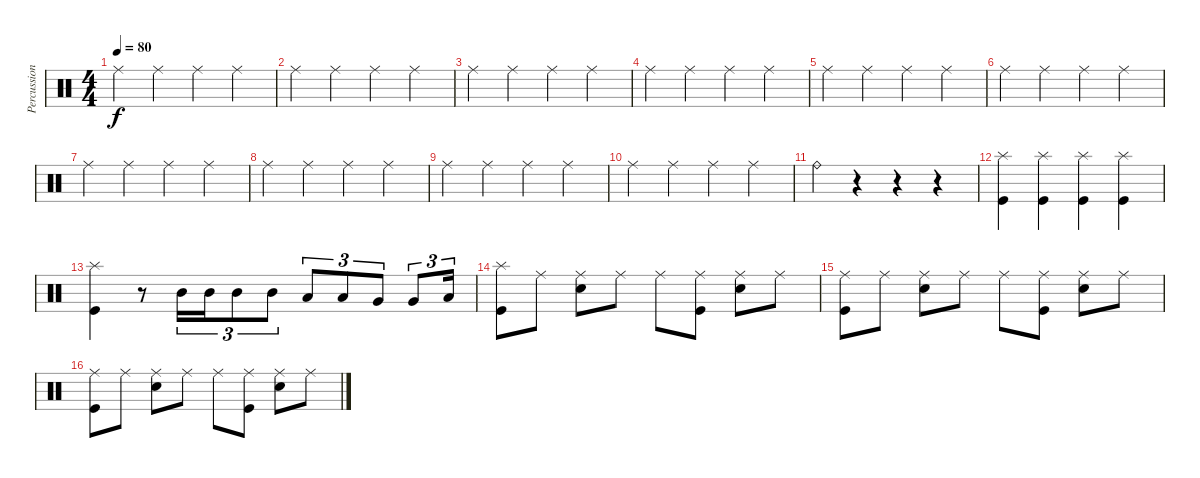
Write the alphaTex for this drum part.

\track ("Percussions" "Percussion") {instrument percussion}
\staff {score}
\articulation defaults
\ts (4 4)
\tempo 80
\clef neutral
\ks c "Ride (middle)".4{dy f} "Ride (middle)".4 "Ride (middle)".4 "Ride (middle)".4
|
"Ride (middle)".4 "Ride (middle)".4 "Ride (middle)".4 "Ride (middle)".4 |
"Ride (middle)".4 "Ride (middle)".4 "Ride (middle)".4 "Ride (middle)".4 |
"Ride (middle)".4 "Ride (middle)".4 "Ride (middle)".4 "Ride (middle)".4 |
"Ride (middle)".4 "Ride (middle)".4 "Ride (middle)".4 "Ride (middle)".4 |
"Ride (middle)".4 "Ride (middle)".4 "Ride (middle)".4 "Ride (middle)".4 |
"Ride (middle)".4 "Ride (middle)".4 "Ride (middle)".4 "Ride (middle)".4 |
"Ride (middle)".4 "Ride (middle)".4 "Ride (middle)".4 "Ride (middle)".4 |
"Ride (middle)".4 "Ride (middle)".4 "Ride (middle)".4 "Ride (middle)".4 |
"Ride (middle)".4 "Ride (middle)".4 "Ride (middle)".4 "Ride (middle)".4 |
"Ride (bell)".4 r.4 r.4 r.4 |
("Splash (hit)" "Kick (hit)").4 ("Splash (hit)" "Kick (hit)").4 ("Splash (hit)" "Kick (hit)").4 ("Splash (hit)" "Kick (hit)").4 |
("Splash (hit)" "Kick (hit)").4 r.8 "Mid Tom (hit)".16{tu (3 2)} "Mid Tom (hit)".16{tu (3 2)} "Mid Tom (hit)".8{tu (3 2)} "Mid Tom (hit)".8{tu (3 2)} "Low Tom (hit)".8{tu (3 2)} "Low Tom (hit)".8{tu (3 2)} "Very Low Tom (hit)".8{tu (3 2)} "Very Low Tom (hit)".8{tu (3 2)} "Low Floor Tom (hit)".16{tu (3 2)} |
("Splash (hit)" "Kick (hit)").8 "Ride (middle)".8 ("Ride (middle)" "Snare (hit) 2").8 "Ride (middle)".8 "Ride (middle)".8 ("Ride (middle)" "Kick (hit)").8 ("Ride (middle)" "Snare (hit) 2").8 "Ride (middle)".8 |
("Ride (middle)" "Kick (hit)").8 "Ride (middle)".8 ("Ride (middle)" "Snare (hit) 2").8 "Ride (middle)".8 "Ride (middle)".8 ("Ride (middle)" "Kick (hit)").8 ("Ride (middle)" "Snare (hit) 2").8 "Ride (middle)".8 |
("Ride (middle)" "Kick (hit)").8 "Ride (middle)".8 ("Ride (middle)" "Snare (hit) 2").8 "Ride (middle)".8 "Ride (middle)".8 ("Ride (middle)" "Kick (hit)").8 ("Ride (middle)" "Snare (hit) 2").8 "Ride (middle)".8
